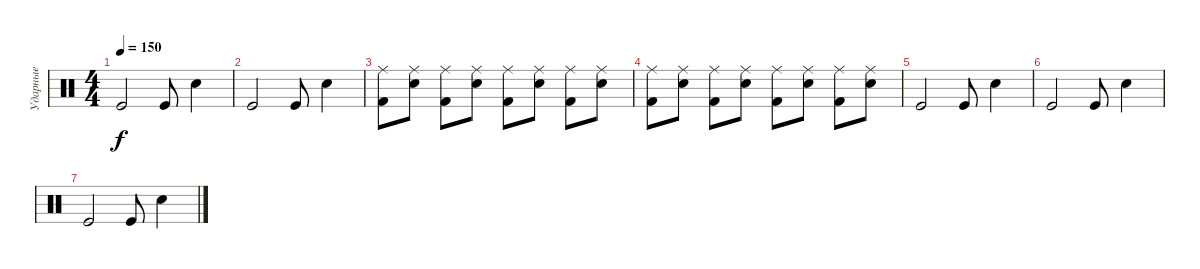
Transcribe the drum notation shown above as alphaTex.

\track ("Ударные" "Ударные") {instrument percussion}
\staff {score}
\articulation defaults
\ts (4 4)
\tempo 150
\clef neutral
\ks c "Kick (hit)".2{dy f} "Kick (hit)".8 "Electric Snare (hit)".4
|
"Kick (hit)".2 "Kick (hit)".8 "Electric Snare (hit)".4 |
("Ride (middle)" "Kick (hit) 2").8 ("Ride (middle)" "Snare (hit) 2").8 ("Ride (middle)" "Kick (hit) 2").8 ("Ride (middle)" "Snare (hit) 2").8 ("Ride (middle)" "Kick (hit) 2").8 ("Ride (middle)" "Snare (hit) 2").8 ("Ride (middle)" "Kick (hit) 2").8 ("Ride (middle)" "Snare (hit) 2").8 |
("Ride (middle)" "Kick (hit) 2").8 ("Ride (middle)" "Snare (hit) 2").8 ("Ride (middle)" "Kick (hit) 2").8 ("Ride (middle)" "Snare (hit) 2").8 ("Ride (middle)" "Kick (hit) 2").8 ("Ride (middle)" "Snare (hit) 2").8 ("Ride (middle)" "Kick (hit) 2").8 ("Ride (middle)" "Snare (hit) 2").8 |
"Kick (hit)".2 "Kick (hit)".8 "Electric Snare (hit)".4 |
"Kick (hit)".2 "Kick (hit)".8 "Electric Snare (hit)".4 |
"Kick (hit)".2 "Kick (hit)".8 "Electric Snare (hit)".4
